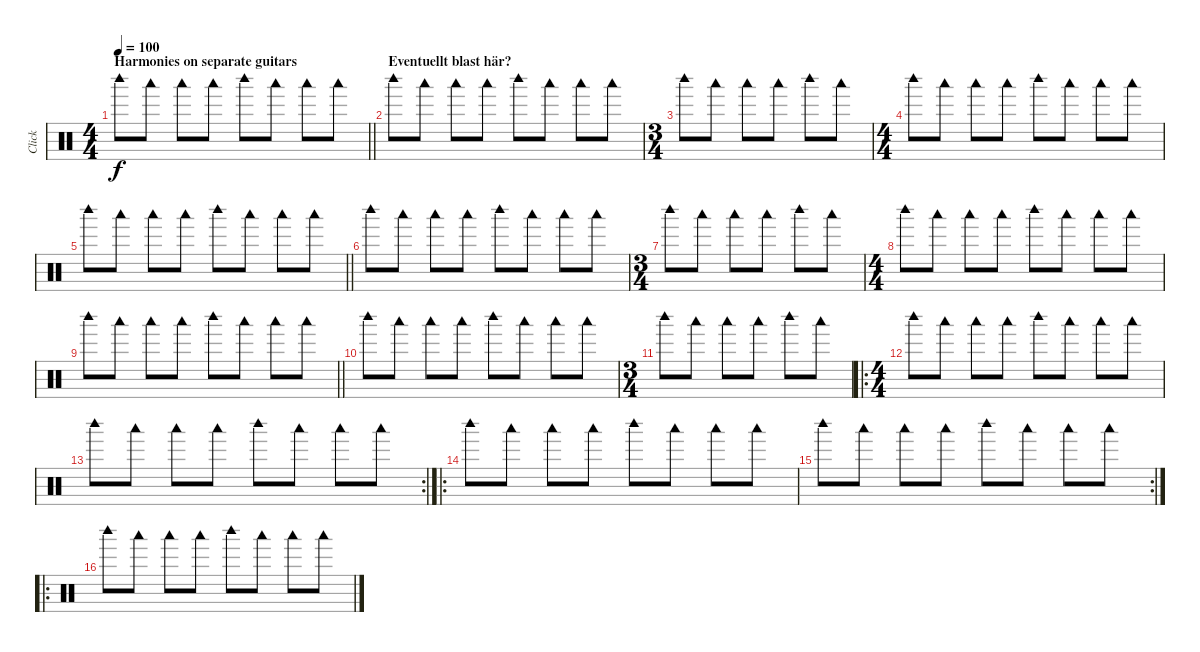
\track ("Click" "Click") {mute instrument percussion}
\staff {score}
\articulation defaults
\ts (4 4)
\section ("" "Harmonies on separate guitars")
\tempo 100
\clef neutral
\barLineRight lightlight
\ks c "Woodblock high (hit)".8{dy f} "Woodblock low (hit)".8 "Woodblock low (hit)".8 "Woodblock low (hit)".8 "Woodblock high (hit)".8 "Woodblock low (hit)".8 "Woodblock low (hit)".8 "Woodblock low (hit)".8
|
\section ("" "Eventuellt blast här?")
"Woodblock high (hit)".8 "Woodblock low (hit)".8 "Woodblock low (hit)".8 "Woodblock low (hit)".8 "Woodblock high (hit)".8 "Woodblock low (hit)".8 "Woodblock low (hit)".8 "Woodblock low (hit)".8 |
\ts (3 4)
"Woodblock high (hit)".8 "Woodblock low (hit)".8 "Woodblock low (hit)".8 "Woodblock low (hit)".8 "Woodblock high (hit)".8 "Woodblock low (hit)".8 |
\ts (4 4)
"Woodblock high (hit)".8 "Woodblock low (hit)".8 "Woodblock low (hit)".8 "Woodblock low (hit)".8 "Woodblock high (hit)".8 "Woodblock low (hit)".8 "Woodblock low (hit)".8 "Woodblock low (hit)".8 |
\barLineRight lightlight "Woodblock high (hit)".8 "Woodblock low (hit)".8 "Woodblock low (hit)".8 "Woodblock low (hit)".8 "Woodblock high (hit)".8 "Woodblock low (hit)".8 "Woodblock low (hit)".8 "Woodblock low (hit)".8
|
"Woodblock high (hit)".8 "Woodblock low (hit)".8 "Woodblock low (hit)".8 "Woodblock low (hit)".8 "Woodblock high (hit)".8 "Woodblock low (hit)".8 "Woodblock low (hit)".8 "Woodblock low (hit)".8 |
\ts (3 4)
"Woodblock high (hit)".8 "Woodblock low (hit)".8 "Woodblock low (hit)".8 "Woodblock low (hit)".8 "Woodblock high (hit)".8 "Woodblock low (hit)".8 |
\ts (4 4)
"Woodblock high (hit)".8 "Woodblock low (hit)".8 "Woodblock low (hit)".8 "Woodblock low (hit)".8 "Woodblock high (hit)".8 "Woodblock low (hit)".8 "Woodblock low (hit)".8 "Woodblock low (hit)".8 |
\barLineRight lightlight "Woodblock high (hit)".8 "Woodblock low (hit)".8 "Woodblock low (hit)".8 "Woodblock low (hit)".8 "Woodblock high (hit)".8 "Woodblock low (hit)".8 "Woodblock low (hit)".8 "Woodblock low (hit)".8
|
"Woodblock high (hit)".8 "Woodblock low (hit)".8 "Woodblock low (hit)".8 "Woodblock low (hit)".8 "Woodblock high (hit)".8 "Woodblock low (hit)".8 "Woodblock low (hit)".8 "Woodblock low (hit)".8 |
\ts (3 4)
"Woodblock high (hit)".8 "Woodblock low (hit)".8 "Woodblock low (hit)".8 "Woodblock low (hit)".8 "Woodblock high (hit)".8 "Woodblock low (hit)".8 |
\ro
\ts (4 4)
"Woodblock high (hit)".8 "Woodblock low (hit)".8 "Woodblock low (hit)".8 "Woodblock low (hit)".8 "Woodblock high (hit)".8 "Woodblock low (hit)".8 "Woodblock low (hit)".8 "Woodblock low (hit)".8 |
\rc 2 "Woodblock high (hit)".8 "Woodblock low (hit)".8 "Woodblock low (hit)".8 "Woodblock low (hit)".8 "Woodblock high (hit)".8 "Woodblock low (hit)".8 "Woodblock low (hit)".8 "Woodblock low (hit)".8
|
\ro "Woodblock high (hit)".8 "Woodblock low (hit)".8 "Woodblock low (hit)".8 "Woodblock low (hit)".8 "Woodblock high (hit)".8 "Woodblock low (hit)".8 "Woodblock low (hit)".8 "Woodblock low (hit)".8
|
\rc 2 "Woodblock high (hit)".8 "Woodblock low (hit)".8 "Woodblock low (hit)".8 "Woodblock low (hit)".8 "Woodblock high (hit)".8 "Woodblock low (hit)".8 "Woodblock low (hit)".8 "Woodblock low (hit)".8
|
\ro "Woodblock high (hit)".8 "Woodblock low (hit)".8 "Woodblock low (hit)".8 "Woodblock low (hit)".8 "Woodblock high (hit)".8 "Woodblock low (hit)".8 "Woodblock low (hit)".8 "Woodblock low (hit)".8
